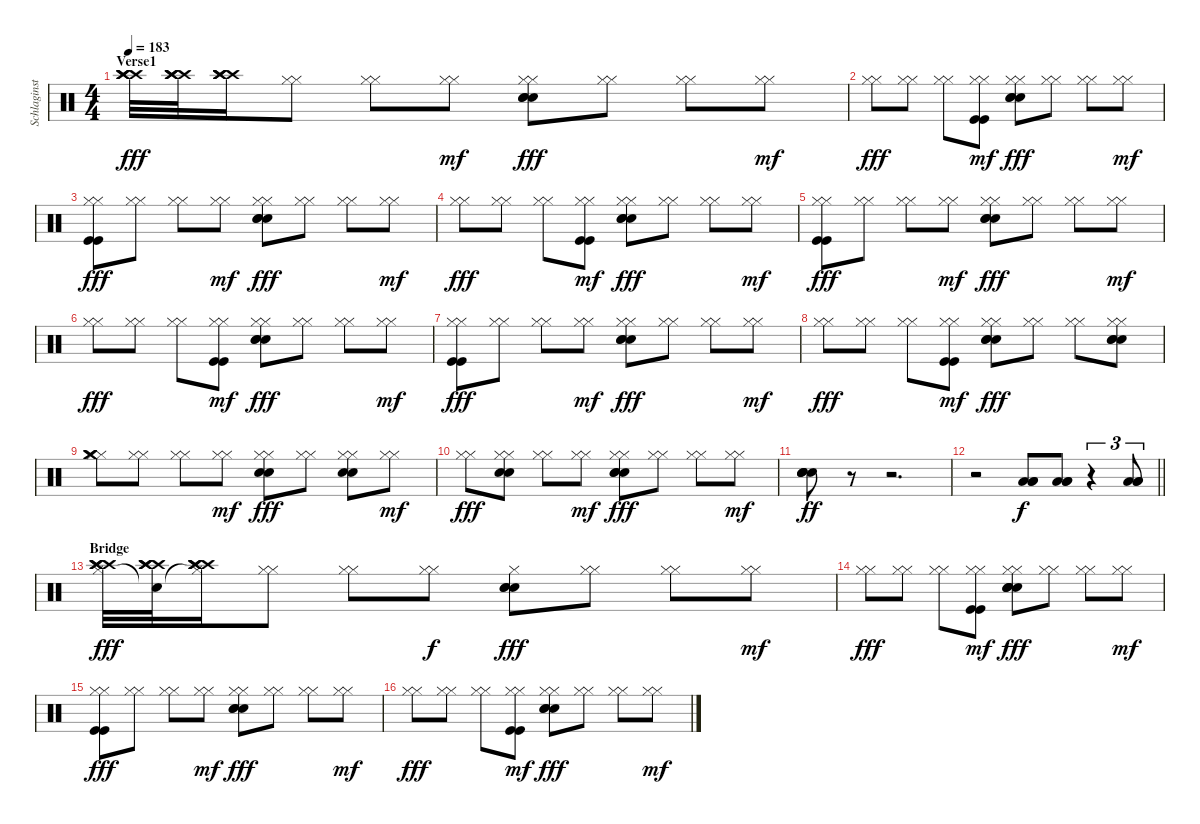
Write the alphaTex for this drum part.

\track ("Schlaginstrumente - Auswahl" "Schlaginst") {instrument percussion}
\staff {score}
\articulation defaults
\ts (4 4)
\section ("" "Verse1")
\tempo 183
\clef neutral
\ks c
("Crash high (hit)" "Crash high (hit)" "Crash high (hit)" "Crash high (hit)").32{dy fff} ("Crash high (hit)" "Crash high (hit)" "Crash high (hit)" "Crash high (hit)").32 ("Crash high (hit)" "Crash high (hit)" "Crash high (hit)" "Crash high (hit)").16 ("Hi-Hat (closed)" "Hi-Hat (closed)").8 ("Hi-Hat (closed)" "Hi-Hat (closed)").8 ("Hi-Hat (closed)" "Hi-Hat (closed)").8{dy mf} ("Hi-Hat (closed)" "Hi-Hat (closed)" "Snare (hit) 2" "Snare (hit) 2" "Snare (hit) 2").8{dy fff} ("Hi-Hat (closed)" "Hi-Hat (closed)").8 ("Hi-Hat (closed)" "Hi-Hat (closed)").8 ("Hi-Hat (closed)" "Hi-Hat (closed)").8{dy mf} |
("Hi-Hat (closed)" "Hi-Hat (closed)").8{dy fff} ("Hi-Hat (closed)" "Hi-Hat (closed)").8 ("Hi-Hat (closed)" "Hi-Hat (closed)").8 ("Hi-Hat (closed)" "Hi-Hat (closed)" "Kick (hit)" "Kick (hit)").8{dy mf} ("Hi-Hat (closed)" "Hi-Hat (closed)" "Snare (hit) 2" "Snare (hit) 2" "Snare (hit) 2").8{dy fff} ("Hi-Hat (closed)" "Hi-Hat (closed)").8 ("Hi-Hat (closed)" "Hi-Hat (closed)").8 ("Hi-Hat (closed)" "Hi-Hat (closed)").8{dy mf} |
("Hi-Hat (closed)" "Hi-Hat (closed)" "Kick (hit)" "Kick (hit)").8{dy fff} ("Hi-Hat (closed)" "Hi-Hat (closed)").8 ("Hi-Hat (closed)" "Hi-Hat (closed)").8 ("Hi-Hat (closed)" "Hi-Hat (closed)").8{dy mf} ("Hi-Hat (closed)" "Hi-Hat (closed)" "Snare (hit) 2" "Snare (hit) 2" "Snare (hit) 2").8{dy fff} ("Hi-Hat (closed)" "Hi-Hat (closed)").8 ("Hi-Hat (closed)" "Hi-Hat (closed)").8 ("Hi-Hat (closed)" "Hi-Hat (closed)").8{dy mf} |
("Hi-Hat (closed)" "Hi-Hat (closed)").8{dy fff} ("Hi-Hat (closed)" "Hi-Hat (closed)").8 ("Hi-Hat (closed)" "Hi-Hat (closed)").8 ("Hi-Hat (closed)" "Hi-Hat (closed)" "Kick (hit)" "Kick (hit)").8{dy mf} ("Hi-Hat (closed)" "Hi-Hat (closed)" "Snare (hit) 2" "Snare (hit) 2" "Snare (hit) 2").8{dy fff} ("Hi-Hat (closed)" "Hi-Hat (closed)").8 ("Hi-Hat (closed)" "Hi-Hat (closed)").8 ("Hi-Hat (closed)" "Hi-Hat (closed)").8{dy mf} |
("Hi-Hat (closed)" "Hi-Hat (closed)" "Kick (hit)" "Kick (hit)").8{dy fff} ("Hi-Hat (closed)" "Hi-Hat (closed)").8 ("Hi-Hat (closed)" "Hi-Hat (closed)").8 ("Hi-Hat (closed)" "Hi-Hat (closed)").8{dy mf} ("Hi-Hat (closed)" "Hi-Hat (closed)" "Snare (hit) 2" "Snare (hit) 2" "Snare (hit) 2").8{dy fff} ("Hi-Hat (closed)" "Hi-Hat (closed)").8 ("Hi-Hat (closed)" "Hi-Hat (closed)").8 ("Hi-Hat (closed)" "Hi-Hat (closed)").8{dy mf} |
("Hi-Hat (closed)" "Hi-Hat (closed)").8{dy fff} ("Hi-Hat (closed)" "Hi-Hat (closed)").8 ("Hi-Hat (closed)" "Hi-Hat (closed)").8 ("Hi-Hat (closed)" "Hi-Hat (closed)" "Kick (hit)" "Kick (hit)").8{dy mf} ("Hi-Hat (closed)" "Hi-Hat (closed)" "Snare (hit) 2" "Snare (hit) 2" "Snare (hit) 2").8{dy fff} ("Hi-Hat (closed)" "Hi-Hat (closed)").8 ("Hi-Hat (closed)" "Hi-Hat (closed)").8 ("Hi-Hat (closed)" "Hi-Hat (closed)").8{dy mf} |
("Hi-Hat (closed)" "Hi-Hat (closed)" "Kick (hit)" "Kick (hit)").8{dy fff} ("Hi-Hat (closed)" "Hi-Hat (closed)").8 ("Hi-Hat (closed)" "Hi-Hat (closed)").8 ("Hi-Hat (closed)" "Hi-Hat (closed)").8{dy mf} ("Hi-Hat (closed)" "Hi-Hat (closed)" "Snare (hit) 2" "Snare (hit) 2" "Snare (hit) 2").8{dy fff} ("Hi-Hat (closed)" "Hi-Hat (closed)").8 ("Hi-Hat (closed)" "Hi-Hat (closed)").8 ("Hi-Hat (closed)" "Hi-Hat (closed)").8{dy mf} |
("Hi-Hat (closed)" "Hi-Hat (closed)").8{dy fff} ("Hi-Hat (closed)" "Hi-Hat (closed)").8 ("Hi-Hat (closed)" "Hi-Hat (closed)").8 ("Hi-Hat (closed)" "Hi-Hat (closed)" "Kick (hit)" "Kick (hit)").8{dy mf} ("Hi-Hat (closed)" "Hi-Hat (closed)" "Snare (hit) 2" "Snare (hit) 2" "Snare (hit) 2").8{dy fff} ("Hi-Hat (closed)" "Hi-Hat (closed)").8 ("Hi-Hat (closed)" "Hi-Hat (closed)").8 ("Hi-Hat (closed)" "Hi-Hat (closed)" "Snare (hit) 2" "Snare (hit) 2" "Snare (hit) 2").8 |
("Hi-Hat (closed)" "Hi-Hat (closed)" "Crash medium (hit)" "Crash medium (hit)").8 ("Hi-Hat (closed)" "Hi-Hat (closed)").8 ("Hi-Hat (closed)" "Hi-Hat (closed)").8 ("Hi-Hat (closed)" "Hi-Hat (closed)").8{dy mf} ("Hi-Hat (closed)" "Hi-Hat (closed)" "Snare (hit) 2" "Snare (hit) 2").8{dy fff} ("Hi-Hat (closed)" "Hi-Hat (closed)").8 ("Hi-Hat (closed)" "Hi-Hat (closed)" "Snare (hit) 2" "Snare (hit) 2").8 ("Hi-Hat (closed)" "Hi-Hat (closed)").8{dy mf} |
("Hi-Hat (closed)" "Hi-Hat (closed)").8{dy fff} ("Hi-Hat (closed)" "Hi-Hat (closed)" "Snare (hit) 2" "Snare (hit) 2").8 ("Hi-Hat (closed)" "Hi-Hat (closed)").8 ("Hi-Hat (closed)" "Hi-Hat (closed)").8{dy mf} ("Hi-Hat (closed)" "Hi-Hat (closed)" "Snare (hit) 2" "Snare (hit) 2" "Snare (hit) 2").8{dy fff} ("Hi-Hat (closed)" "Hi-Hat (closed)").8 ("Hi-Hat (closed)" "Hi-Hat (closed)").8 ("Hi-Hat (closed)" "Hi-Hat (closed)").8{dy mf} |
("Snare (hit) 2" "Snare (hit) 2" "Snare (hit) 2" "Snare (hit) 2").8{dy ff} r.8 r.2{d} |
\barLineRight lightlight
r.2 ("Low Tom (hit)" "Low Tom (hit)" "Low Tom (hit)").8{dy f} ("Low Tom (hit)" "Low Tom (hit)" "Low Tom (hit)").8 r.4{tu (3 2)} ("Low Tom (hit)" "Low Tom (hit)" "Low Tom (hit)").8{tu (3 2)} |
\section ("" "Bridge")
("Hi-Hat (closed)" "Crash high (hit)" "Crash high (hit)" "Crash high (hit)" "Crash high (hit)").32{dy fff} ("Snare (hit)"{t} "Crash high (hit)" "Crash high (hit)" "Crash high (hit)" "Crash high (hit)").32 ("Hi-Hat (closed)"{t} "Crash high (hit)" "Crash high (hit)" "Crash high (hit)" "Crash high (hit)").16 ("Hi-Hat (closed)" "Hi-Hat (closed)").8 ("Hi-Hat (closed)" "Hi-Hat (closed)").8 ("Hi-Hat (closed)" "Hi-Hat (closed)").8{dy f} ("Hi-Hat (closed)" "Snare (hit) 2" "Snare (hit) 2" "Snare (hit) 2").8{dy fff} ("Hi-Hat (closed)" "Hi-Hat (closed)").8 ("Hi-Hat (closed)" "Hi-Hat (closed)").8 ("Hi-Hat (closed)" "Hi-Hat (closed)").8{dy mf} |
("Hi-Hat (closed)" "Hi-Hat (closed)").8{dy fff} ("Hi-Hat (closed)" "Hi-Hat (closed)").8 ("Hi-Hat (closed)" "Hi-Hat (closed)").8 ("Hi-Hat (closed)" "Hi-Hat (closed)" "Kick (hit)" "Kick (hit)").8{dy mf} ("Hi-Hat (closed)" "Hi-Hat (closed)" "Snare (hit) 2" "Snare (hit) 2" "Snare (hit) 2" "Snare (hit) 2").8{dy fff} ("Hi-Hat (closed)" "Hi-Hat (closed)").8 ("Hi-Hat (closed)" "Hi-Hat (closed)").8 ("Hi-Hat (closed)" "Hi-Hat (closed)").8{dy mf} |
("Hi-Hat (closed)" "Hi-Hat (closed)" "Kick (hit)" "Kick (hit)").8{dy fff} ("Hi-Hat (closed)" "Hi-Hat (closed)").8 ("Hi-Hat (closed)" "Hi-Hat (closed)").8 ("Hi-Hat (closed)" "Hi-Hat (closed)").8{dy mf} ("Hi-Hat (closed)" "Hi-Hat (closed)" "Snare (hit) 2" "Snare (hit) 2" "Snare (hit) 2").8{dy fff} ("Hi-Hat (closed)" "Hi-Hat (closed)").8 ("Hi-Hat (closed)" "Hi-Hat (closed)").8 ("Hi-Hat (closed)" "Hi-Hat (closed)").8{dy mf} |
("Hi-Hat (closed)" "Hi-Hat (closed)").8{dy fff} ("Hi-Hat (closed)" "Hi-Hat (closed)").8 ("Hi-Hat (closed)" "Hi-Hat (closed)").8 ("Hi-Hat (closed)" "Hi-Hat (closed)" "Kick (hit)" "Kick (hit)").8{dy mf} ("Hi-Hat (closed)" "Hi-Hat (closed)" "Snare (hit) 2" "Snare (hit) 2" "Snare (hit) 2").8{dy fff} ("Hi-Hat (closed)" "Hi-Hat (closed)").8 ("Hi-Hat (closed)" "Hi-Hat (closed)").8 ("Hi-Hat (closed)" "Hi-Hat (closed)").8{dy mf}
